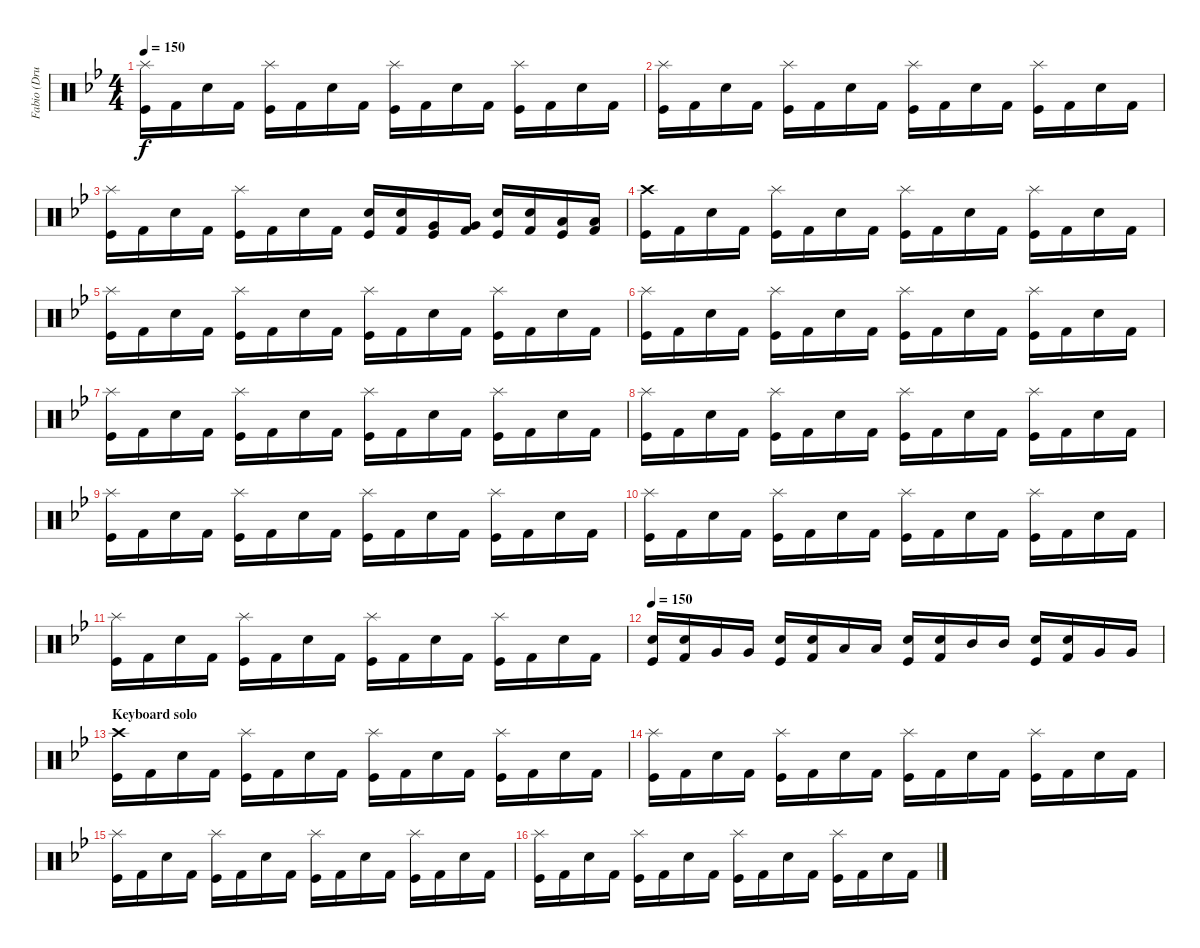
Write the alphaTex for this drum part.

\track ("Fabio (Drums)" "Fabio (Dru") {instrument percussion}
\staff {score}
\articulation defaults
\ts (4 4)
\tempo 150
\clef neutral
\ks gminor
("Splash (hit)" "Kick (hit)").16{dy f} "Kick (hit) 2".16 "Snare (hit) 2".16 "Kick (hit) 2".16 ("Splash (hit)" "Kick (hit)").16 "Kick (hit) 2".16 "Snare (hit) 2".16 "Kick (hit) 2".16 ("Splash (hit)" "Kick (hit)").16 "Kick (hit) 2".16 "Snare (hit) 2".16 "Kick (hit) 2".16 ("Splash (hit)" "Kick (hit)").16 "Kick (hit) 2".16 "Snare (hit) 2".16 "Kick (hit) 2".16 |
("Splash (hit)" "Kick (hit)").16 "Kick (hit) 2".16 "Snare (hit) 2".16 "Kick (hit) 2".16 ("Splash (hit)" "Kick (hit)").16 "Kick (hit) 2".16 "Snare (hit) 2".16 "Kick (hit) 2".16 ("Splash (hit)" "Kick (hit)").16 "Kick (hit) 2".16 "Snare (hit) 2".16 "Kick (hit) 2".16 ("Splash (hit)" "Kick (hit)").16 "Kick (hit) 2".16 "Snare (hit) 2".16 "Kick (hit) 2".16 |
("Splash (hit)" "Kick (hit)").16 "Kick (hit) 2".16 "Snare (hit) 2".16 "Kick (hit) 2".16 ("Splash (hit)" "Kick (hit)").16 "Kick (hit) 2".16 "Snare (hit) 2".16 "Kick (hit) 2".16 ("Snare (hit) 2" "Kick (hit)").16 ("Snare (hit) 2" "Kick (hit) 2").16 ("Very Low Tom (hit)" "Kick (hit)").16 ("Very Low Tom (hit)" "Kick (hit) 2").16 ("Snare (hit) 2" "Kick (hit)").16 ("Snare (hit) 2" "Kick (hit) 2").16 ("Low Tom (hit)" "Kick (hit)").16 ("Low Tom (hit)" "Kick (hit) 2").16 |
("Crash high (hit)" "Kick (hit)").16 "Kick (hit) 2".16 "Snare (hit) 2".16 "Kick (hit) 2".16 ("Splash (hit)" "Kick (hit)").16 "Kick (hit) 2".16 "Snare (hit) 2".16 "Kick (hit) 2".16 ("Splash (hit)" "Kick (hit)").16 "Kick (hit) 2".16 "Snare (hit) 2".16 "Kick (hit) 2".16 ("Splash (hit)" "Kick (hit)").16 "Kick (hit) 2".16 "Snare (hit) 2".16 "Kick (hit) 2".16 |
("Splash (hit)" "Kick (hit)").16 "Kick (hit) 2".16 "Snare (hit) 2".16 "Kick (hit) 2".16 ("Splash (hit)" "Kick (hit)").16 "Kick (hit) 2".16 "Snare (hit) 2".16 "Kick (hit) 2".16 ("Splash (hit)" "Kick (hit)").16 "Kick (hit) 2".16 "Snare (hit) 2".16 "Kick (hit) 2".16 ("Splash (hit)" "Kick (hit)").16 "Kick (hit) 2".16 "Snare (hit) 2".16 "Kick (hit) 2".16 |
("Splash (hit)" "Kick (hit)").16 "Kick (hit) 2".16 "Snare (hit) 2".16 "Kick (hit) 2".16 ("Splash (hit)" "Kick (hit)").16 "Kick (hit) 2".16 "Snare (hit) 2".16 "Kick (hit) 2".16 ("Splash (hit)" "Kick (hit)").16 "Kick (hit) 2".16 "Snare (hit) 2".16 "Kick (hit) 2".16 ("Splash (hit)" "Kick (hit)").16 "Kick (hit) 2".16 "Snare (hit) 2".16 "Kick (hit) 2".16 |
("Splash (hit)" "Kick (hit)").16 "Kick (hit) 2".16 "Snare (hit) 2".16 "Kick (hit) 2".16 ("Splash (hit)" "Kick (hit)").16 "Kick (hit) 2".16 "Snare (hit) 2".16 "Kick (hit) 2".16 ("Splash (hit)" "Kick (hit)").16 "Kick (hit) 2".16 "Snare (hit) 2".16 "Kick (hit) 2".16 ("Splash (hit)" "Kick (hit)").16 "Kick (hit) 2".16 "Snare (hit) 2".16 "Kick (hit) 2".16 |
("Splash (hit)" "Kick (hit)").16 "Kick (hit) 2".16 "Snare (hit) 2".16 "Kick (hit) 2".16 ("Splash (hit)" "Kick (hit)").16 "Kick (hit) 2".16 "Snare (hit) 2".16 "Kick (hit) 2".16 ("Splash (hit)" "Kick (hit)").16 "Kick (hit) 2".16 "Snare (hit) 2".16 "Kick (hit) 2".16 ("Splash (hit)" "Kick (hit)").16 "Kick (hit) 2".16 "Snare (hit) 2".16 "Kick (hit) 2".16 |
("Splash (hit)" "Kick (hit)").16 "Kick (hit) 2".16 "Snare (hit) 2".16 "Kick (hit) 2".16 ("Splash (hit)" "Kick (hit)").16 "Kick (hit) 2".16 "Snare (hit) 2".16 "Kick (hit) 2".16 ("Splash (hit)" "Kick (hit)").16 "Kick (hit) 2".16 "Snare (hit) 2".16 "Kick (hit) 2".16 ("Splash (hit)" "Kick (hit)").16 "Kick (hit) 2".16 "Snare (hit) 2".16 "Kick (hit) 2".16 |
("Splash (hit)" "Kick (hit)").16 "Kick (hit) 2".16 "Snare (hit) 2".16 "Kick (hit) 2".16 ("Splash (hit)" "Kick (hit)").16 "Kick (hit) 2".16 "Snare (hit) 2".16 "Kick (hit) 2".16 ("Splash (hit)" "Kick (hit)").16 "Kick (hit) 2".16 "Snare (hit) 2".16 "Kick (hit) 2".16 ("Splash (hit)" "Kick (hit)").16 "Kick (hit) 2".16 "Snare (hit) 2".16 "Kick (hit) 2".16 |
("Splash (hit)" "Kick (hit)").16 "Kick (hit) 2".16 "Snare (hit) 2".16 "Kick (hit) 2".16 ("Splash (hit)" "Kick (hit)").16 "Kick (hit) 2".16 "Snare (hit) 2".16 "Kick (hit) 2".16 ("Splash (hit)" "Kick (hit)").16 "Kick (hit) 2".16 "Snare (hit) 2".16 "Kick (hit) 2".16 ("Splash (hit)" "Kick (hit)").16 "Kick (hit) 2".16 "Snare (hit) 2".16 "Kick (hit) 2".16 |
\tempo 150
("Snare (hit) 2" "Kick (hit)").16 ("Snare (hit) 2" "Kick (hit) 2").16 "Very Low Tom (hit)".16 "Very Low Tom (hit)".16 ("Snare (hit) 2" "Kick (hit)").16 ("Snare (hit) 2" "Kick (hit) 2").16 "Low Tom (hit)".16 "Low Tom (hit)".16 ("Snare (hit) 2" "Kick (hit)").16 ("Snare (hit) 2" "Kick (hit) 2").16 "Mid Tom (hit)".16 "Mid Tom (hit)".16 ("Snare (hit) 2" "Kick (hit)").16 ("Snare (hit) 2" "Kick (hit) 2").16 "Very Low Tom (hit)".16 "Very Low Tom (hit)".16 |
\section ("" "Keyboard solo")
("Crash high (hit)" "Kick (hit)").16 "Kick (hit) 2".16 "Snare (hit) 2".16 "Kick (hit) 2".16 ("Splash (hit)" "Kick (hit)").16 "Kick (hit) 2".16 "Snare (hit) 2".16 "Kick (hit) 2".16 ("Splash (hit)" "Kick (hit)").16 "Kick (hit) 2".16 "Snare (hit) 2".16 "Kick (hit) 2".16 ("Splash (hit)" "Kick (hit)").16 "Kick (hit) 2".16 "Snare (hit) 2".16 "Kick (hit) 2".16 |
("Splash (hit)" "Kick (hit)").16 "Kick (hit) 2".16 "Snare (hit) 2".16 "Kick (hit) 2".16 ("Splash (hit)" "Kick (hit)").16 "Kick (hit) 2".16 "Snare (hit) 2".16 "Kick (hit) 2".16 ("Splash (hit)" "Kick (hit)").16 "Kick (hit) 2".16 "Snare (hit) 2".16 "Kick (hit) 2".16 ("Splash (hit)" "Kick (hit)").16 "Kick (hit) 2".16 "Snare (hit) 2".16 "Kick (hit) 2".16 |
("Splash (hit)" "Kick (hit)").16 "Kick (hit) 2".16 "Snare (hit) 2".16 "Kick (hit) 2".16 ("Splash (hit)" "Kick (hit)").16 "Kick (hit) 2".16 "Snare (hit) 2".16 "Kick (hit) 2".16 ("Splash (hit)" "Kick (hit)").16 "Kick (hit) 2".16 "Snare (hit) 2".16 "Kick (hit) 2".16 ("Splash (hit)" "Kick (hit)").16 "Kick (hit) 2".16 "Snare (hit) 2".16 "Kick (hit) 2".16 |
("Splash (hit)" "Kick (hit)").16 "Kick (hit) 2".16 "Snare (hit) 2".16 "Kick (hit) 2".16 ("Splash (hit)" "Kick (hit)").16 "Kick (hit) 2".16 "Snare (hit) 2".16 "Kick (hit) 2".16 ("Splash (hit)" "Kick (hit)").16 "Kick (hit) 2".16 "Snare (hit) 2".16 "Kick (hit) 2".16 ("Splash (hit)" "Kick (hit)").16 "Kick (hit) 2".16 "Snare (hit) 2".16 "Kick (hit) 2".16
